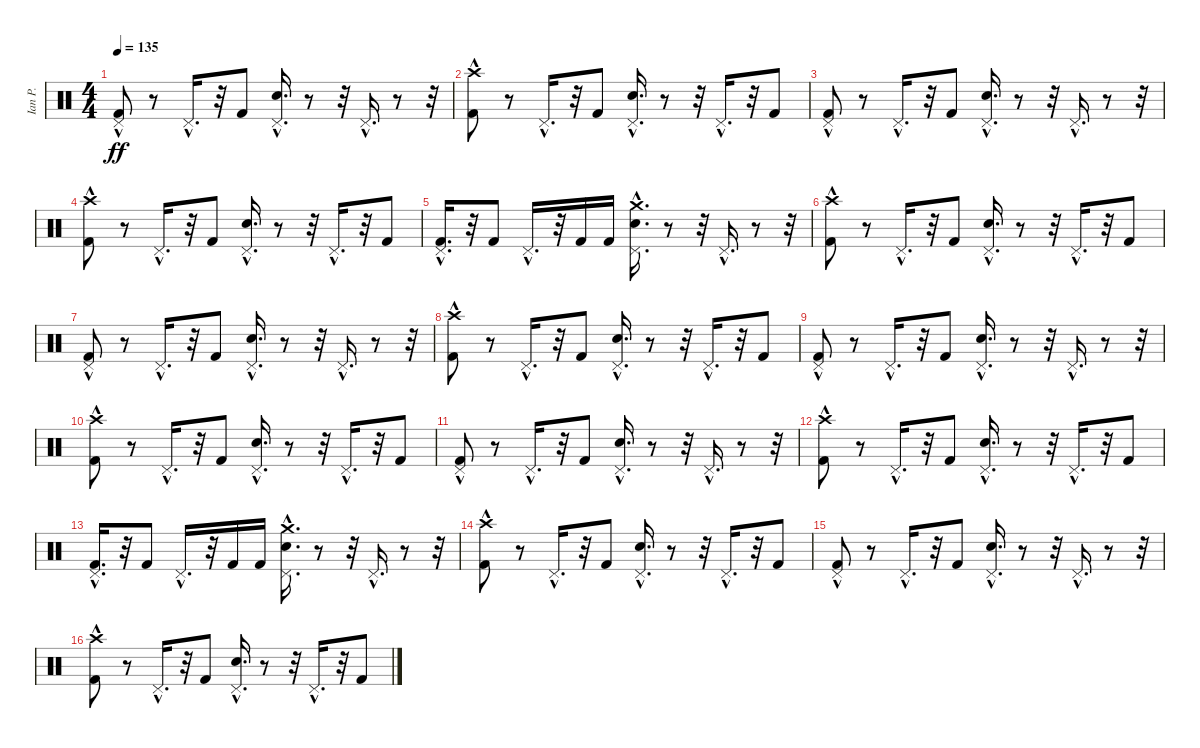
\track ("Ian P." "Ian P.") {instrument percussion}
\staff {score}
\articulation defaults
\ts (4 4)
\tempo 135
\clef neutral
\ks c
("Kick (hit) 2" "Pedal Hi-Hat (hit)"{hac}).8{dy ff} r.8 "Pedal Hi-Hat (hit)"{hac}.16{d} r.32 "Kick (hit) 2".8 ("Snare (hit) 2"{hac} "Pedal Hi-Hat (hit)"{hac}).16{d} r.8 r.32 "Pedal Hi-Hat (hit)"{hac}.16{d} r.8 r.32 |
("Kick (hit) 2" "Crash high (hit)"{hac}).8 r.8 "Pedal Hi-Hat (hit)"{hac}.16{d} r.32 "Kick (hit) 2".8 ("Snare (hit) 2"{hac} "Pedal Hi-Hat (hit)"{hac}).16{d} r.8 r.32 "Pedal Hi-Hat (hit)"{hac}.16{d} r.32 "Kick (hit) 2".8 |
("Kick (hit) 2" "Pedal Hi-Hat (hit)"{hac}).8 r.8 "Pedal Hi-Hat (hit)"{hac}.16{d} r.32 "Kick (hit) 2".8 ("Snare (hit) 2"{hac} "Pedal Hi-Hat (hit)"{hac}).16{d} r.8 r.32 "Pedal Hi-Hat (hit)"{hac}.16{d} r.8 r.32 |
("Kick (hit) 2" "Crash high (hit)"{hac}).8 r.8 "Pedal Hi-Hat (hit)"{hac}.16{d} r.32 "Kick (hit) 2".8 ("Snare (hit) 2"{hac} "Pedal Hi-Hat (hit)"{hac}).16{d} r.8 r.32 "Pedal Hi-Hat (hit)"{hac}.16{d} r.32 "Kick (hit) 2".8 |
("Kick (hit) 2" "Pedal Hi-Hat (hit)"{hac}).16{d} r.32 "Kick (hit) 2".8 "Pedal Hi-Hat (hit)"{hac}.16{d} r.32 "Kick (hit) 2".16 "Kick (hit) 2".16 ("Snare (hit) 2"{hac} "Crash medium (hit)" "Pedal Hi-Hat (hit)"{hac}).16{d} r.8 r.32 "Pedal Hi-Hat (hit)"{hac}.16{d} r.8 r.32 |
("Kick (hit) 2" "Crash high (hit)"{hac}).8 r.8 "Pedal Hi-Hat (hit)"{hac}.16{d} r.32 "Kick (hit) 2".8 ("Snare (hit) 2"{hac} "Pedal Hi-Hat (hit)"{hac}).16{d} r.8 r.32 "Pedal Hi-Hat (hit)"{hac}.16{d} r.32 "Kick (hit) 2".8 |
("Kick (hit) 2" "Pedal Hi-Hat (hit)"{hac}).8 r.8 "Pedal Hi-Hat (hit)"{hac}.16{d} r.32 "Kick (hit) 2".8 ("Snare (hit) 2"{hac} "Pedal Hi-Hat (hit)"{hac}).16{d} r.8 r.32 "Pedal Hi-Hat (hit)"{hac}.16{d} r.8 r.32 |
("Kick (hit) 2" "Crash high (hit)"{hac}).8 r.8 "Pedal Hi-Hat (hit)"{hac}.16{d} r.32 "Kick (hit) 2".8 ("Snare (hit) 2"{hac} "Pedal Hi-Hat (hit)"{hac}).16{d} r.8 r.32 "Pedal Hi-Hat (hit)"{hac}.16{d} r.32 "Kick (hit) 2".8 |
("Kick (hit) 2" "Pedal Hi-Hat (hit)"{hac}).8 r.8 "Pedal Hi-Hat (hit)"{hac}.16{d} r.32 "Kick (hit) 2".8 ("Snare (hit) 2"{hac} "Pedal Hi-Hat (hit)"{hac}).16{d} r.8 r.32 "Pedal Hi-Hat (hit)"{hac}.16{d} r.8 r.32 |
("Kick (hit) 2" "Crash high (hit)"{hac}).8 r.8 "Pedal Hi-Hat (hit)"{hac}.16{d} r.32 "Kick (hit) 2".8 ("Snare (hit) 2"{hac} "Pedal Hi-Hat (hit)"{hac}).16{d} r.8 r.32 "Pedal Hi-Hat (hit)"{hac}.16{d} r.32 "Kick (hit) 2".8 |
("Kick (hit) 2" "Pedal Hi-Hat (hit)"{hac}).8 r.8 "Pedal Hi-Hat (hit)"{hac}.16{d} r.32 "Kick (hit) 2".8 ("Snare (hit) 2"{hac} "Pedal Hi-Hat (hit)"{hac}).16{d} r.8 r.32 "Pedal Hi-Hat (hit)"{hac}.16{d} r.8 r.32 |
("Kick (hit) 2" "Crash high (hit)"{hac}).8 r.8 "Pedal Hi-Hat (hit)"{hac}.16{d} r.32 "Kick (hit) 2".8 ("Snare (hit) 2"{hac} "Pedal Hi-Hat (hit)"{hac}).16{d} r.8 r.32 "Pedal Hi-Hat (hit)"{hac}.16{d} r.32 "Kick (hit) 2".8 |
("Kick (hit) 2" "Pedal Hi-Hat (hit)"{hac}).16{d} r.32 "Kick (hit) 2".8 "Pedal Hi-Hat (hit)"{hac}.16{d} r.32 "Kick (hit) 2".16 "Kick (hit) 2".16 ("Snare (hit) 2"{hac} "Crash medium (hit)" "Pedal Hi-Hat (hit)"{hac}).16{d} r.8 r.32 "Pedal Hi-Hat (hit)"{hac}.16{d} r.8 r.32 |
("Kick (hit) 2" "Crash high (hit)"{hac}).8 r.8 "Pedal Hi-Hat (hit)"{hac}.16{d} r.32 "Kick (hit) 2".8 ("Snare (hit) 2"{hac} "Pedal Hi-Hat (hit)"{hac}).16{d} r.8 r.32 "Pedal Hi-Hat (hit)"{hac}.16{d} r.32 "Kick (hit) 2".8 |
("Kick (hit) 2" "Pedal Hi-Hat (hit)"{hac}).8 r.8 "Pedal Hi-Hat (hit)"{hac}.16{d} r.32 "Kick (hit) 2".8 ("Snare (hit) 2"{hac} "Pedal Hi-Hat (hit)"{hac}).16{d} r.8 r.32 "Pedal Hi-Hat (hit)"{hac}.16{d} r.8 r.32 |
("Kick (hit) 2" "Crash high (hit)"{hac}).8 r.8 "Pedal Hi-Hat (hit)"{hac}.16{d} r.32 "Kick (hit) 2".8 ("Snare (hit) 2"{hac} "Pedal Hi-Hat (hit)"{hac}).16{d} r.8 r.32 "Pedal Hi-Hat (hit)"{hac}.16{d} r.32 "Kick (hit) 2".8
